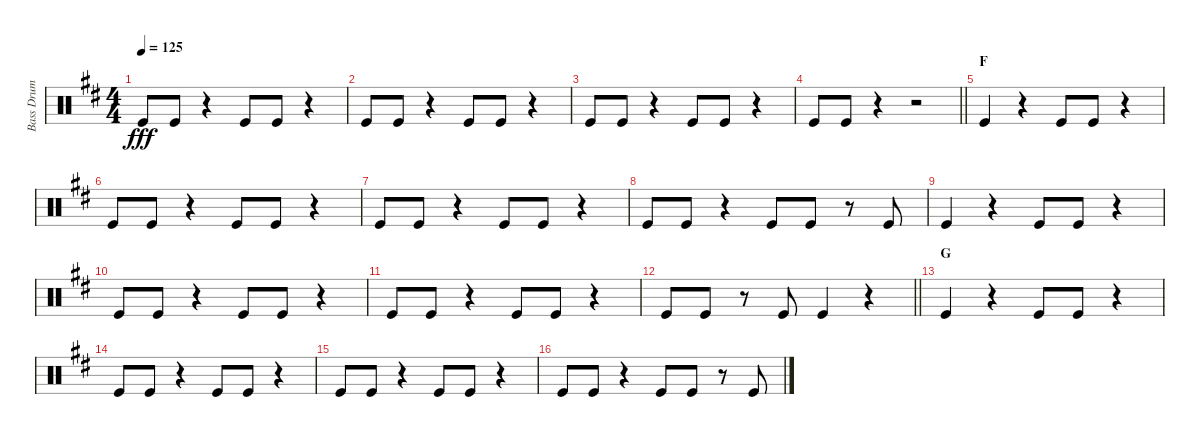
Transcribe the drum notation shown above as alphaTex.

\track ("Bass Drum" "Bass Drum") {instrument percussion}
\staff {score}
\articulation defaults
\ts (4 4)
\tempo 125
\clef neutral
\ks d "Kick (hit)".8{dy fff} "Kick (hit)".8
r.4 "Kick (hit)".8 "Kick (hit)".8 r.4 |
"Kick (hit)".8 "Kick (hit)".8 r.4 "Kick (hit)".8 "Kick (hit)".8 r.4 |
"Kick (hit)".8 "Kick (hit)".8 r.4 "Kick (hit)".8 "Kick (hit)".8 r.4 |
\barLineRight lightlight "Kick (hit)".8 "Kick (hit)".8
r.4 r.2 |
\section ("" "F")
"Kick (hit)".4 r.4 "Kick (hit)".8 "Kick (hit)".8 r.4 |
"Kick (hit)".8 "Kick (hit)".8 r.4 "Kick (hit)".8 "Kick (hit)".8 r.4 |
"Kick (hit)".8 "Kick (hit)".8 r.4 "Kick (hit)".8 "Kick (hit)".8 r.4 |
"Kick (hit)".8 "Kick (hit)".8 r.4 "Kick (hit)".8 "Kick (hit)".8 r.8 "Kick (hit)".8 |
"Kick (hit)".4 r.4 "Kick (hit)".8 "Kick (hit)".8 r.4 |
"Kick (hit)".8 "Kick (hit)".8 r.4 "Kick (hit)".8 "Kick (hit)".8 r.4 |
"Kick (hit)".8 "Kick (hit)".8 r.4 "Kick (hit)".8 "Kick (hit)".8 r.4 |
\barLineRight lightlight "Kick (hit)".8 "Kick (hit)".8
r.8 "Kick (hit)".8 "Kick (hit)".4 r.4 |
\section ("" "G")
"Kick (hit)".4 r.4 "Kick (hit)".8 "Kick (hit)".8 r.4 |
"Kick (hit)".8 "Kick (hit)".8 r.4 "Kick (hit)".8 "Kick (hit)".8 r.4 |
"Kick (hit)".8 "Kick (hit)".8 r.4 "Kick (hit)".8 "Kick (hit)".8 r.4 |
"Kick (hit)".8 "Kick (hit)".8 r.4 "Kick (hit)".8 "Kick (hit)".8 r.8 "Kick (hit)".8
